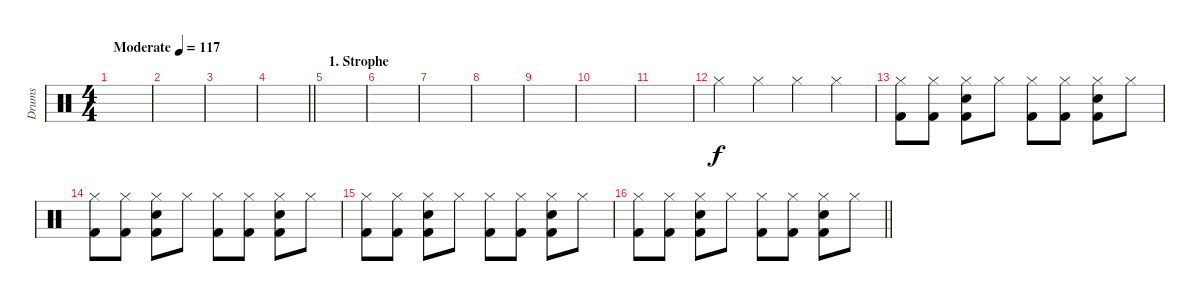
\track ("Drums" "Drums") {instrument percussion}
\staff {score}
\articulation defaults
\ts (4 4)
\tempo (117 "Moderate")
\clef neutral
\ks c
|
|
|
\barLineRight lightlight
|
\section ("" "1. Strophe")
|
|
|
|
|
|
|
"Hi-Hat (closed)".4 "Hi-Hat (closed)".4 "Hi-Hat (closed)".4 "Hi-Hat (closed)".4 |
("Kick (hit) 2" "Hi-Hat (closed)").8{volume 4} ("Kick (hit) 2" "Hi-Hat (closed)").8 ("Kick (hit) 2" "Hi-Hat (closed)" "Snare (hit) 2").8 "Hi-Hat (closed)".8 ("Kick (hit) 2" "Hi-Hat (closed)").8 ("Kick (hit) 2" "Hi-Hat (closed)").8 ("Kick (hit) 2" "Hi-Hat (closed)" "Snare (hit) 2").8 "Hi-Hat (closed)".8 |
("Kick (hit) 2" "Hi-Hat (closed)").8 ("Kick (hit) 2" "Hi-Hat (closed)").8 ("Kick (hit) 2" "Hi-Hat (closed)" "Snare (hit) 2").8 "Hi-Hat (closed)".8 ("Kick (hit) 2" "Hi-Hat (closed)").8 ("Kick (hit) 2" "Hi-Hat (closed)").8 ("Kick (hit) 2" "Hi-Hat (closed)" "Snare (hit) 2").8 "Hi-Hat (closed)".8 |
("Kick (hit) 2" "Hi-Hat (closed)").8 ("Kick (hit) 2" "Hi-Hat (closed)").8 ("Kick (hit) 2" "Hi-Hat (closed)" "Snare (hit) 2").8 "Hi-Hat (closed)".8 ("Kick (hit) 2" "Hi-Hat (closed)").8 ("Kick (hit) 2" "Hi-Hat (closed)").8 ("Kick (hit) 2" "Hi-Hat (closed)" "Snare (hit) 2").8 "Hi-Hat (closed)".8 |
\barLineRight lightlight
("Kick (hit) 2" "Hi-Hat (closed)").8 ("Kick (hit) 2" "Hi-Hat (closed)").8 ("Kick (hit) 2" "Hi-Hat (closed)" "Snare (hit) 2").8 "Hi-Hat (closed)".8 ("Kick (hit) 2" "Hi-Hat (closed)").8 ("Kick (hit) 2" "Hi-Hat (closed)").8 ("Kick (hit) 2" "Hi-Hat (closed)" "Snare (hit) 2").8 "Hi-Hat (closed)".8
